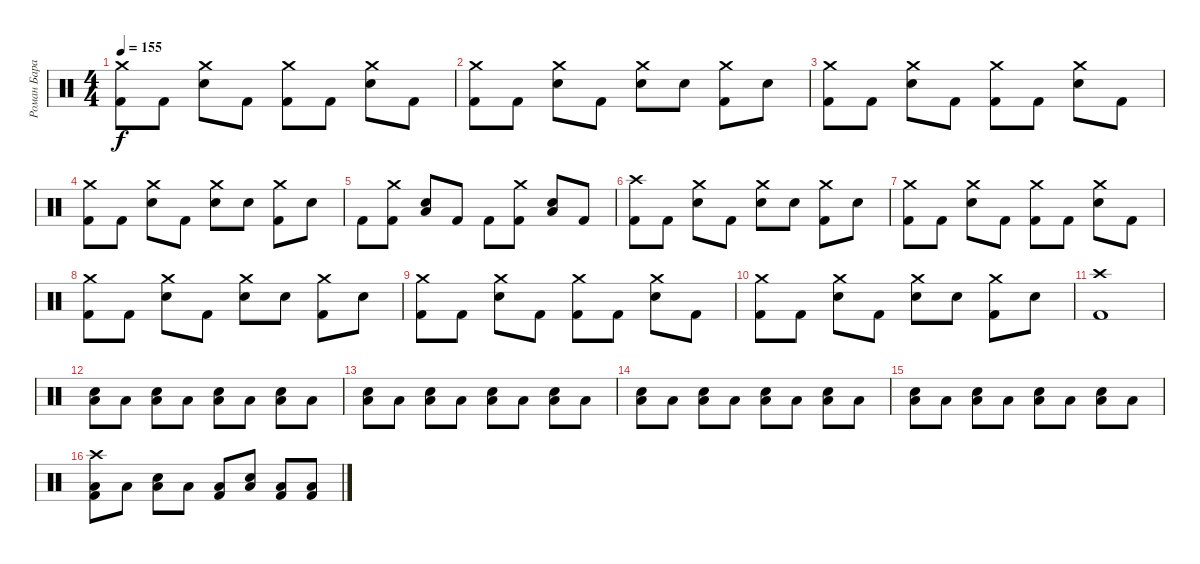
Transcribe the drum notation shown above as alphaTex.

\track ("Роман Баранюк (Meinl, Vic Firth, Peace)" "Роман Бара") {instrument percussion}
\staff {score}
\articulation defaults
\ts (4 4)
\tempo 155
\clef neutral
\ks c
("Crash medium (hit)" "Kick (hit) 2").8{dy f} "Kick (hit) 2".8 ("Crash medium (hit)" "Snare (hit) 2").8 "Kick (hit) 2".8 ("Crash medium (hit)" "Kick (hit) 2").8 "Kick (hit) 2".8 ("Crash medium (hit)" "Snare (hit) 2").8 "Kick (hit) 2".8 |
("Crash medium (hit)" "Kick (hit) 2").8 "Kick (hit) 2".8 ("Crash medium (hit)" "Snare (hit) 2").8 "Kick (hit) 2".8 ("Crash medium (hit)" "Snare (hit) 2").8 "Snare (hit) 2".8 ("Crash medium (hit)" "Kick (hit) 2").8 "Snare (hit) 2".8 |
("Crash medium (hit)" "Kick (hit) 2").8 "Kick (hit) 2".8 ("Crash medium (hit)" "Snare (hit) 2").8 "Kick (hit) 2".8 ("Crash medium (hit)" "Kick (hit) 2").8 "Kick (hit) 2".8 ("Crash medium (hit)" "Snare (hit) 2").8 "Kick (hit) 2".8 |
("Crash medium (hit)" "Kick (hit) 2").8 "Kick (hit) 2".8 ("Crash medium (hit)" "Snare (hit) 2").8 "Kick (hit) 2".8 ("Crash medium (hit)" "Snare (hit) 2").8 "Snare (hit) 2".8 ("Crash medium (hit)" "Kick (hit) 2").8 "Snare (hit) 2".8 |
"Kick (hit) 2".8 ("Crash medium (hit)" "Kick (hit) 2").8 ("Snare (hit) 2" "Low Tom (hit)").8 "Kick (hit) 2".8 "Kick (hit) 2".8 ("Crash medium (hit)" "Kick (hit) 2").8 ("Snare (hit) 2" "Low Tom (hit)").8 "Kick (hit) 2".8 |
("Crash high (hit)" "Kick (hit) 2").8 "Kick (hit) 2".8 ("Crash medium (hit)" "Snare (hit) 2").8 "Kick (hit) 2".8 ("Crash medium (hit)" "Snare (hit) 2").8 "Snare (hit) 2".8 ("Crash medium (hit)" "Kick (hit) 2").8 "Snare (hit) 2".8 |
("Crash medium (hit)" "Kick (hit) 2").8 "Kick (hit) 2".8 ("Crash medium (hit)" "Snare (hit) 2").8 "Kick (hit) 2".8 ("Crash medium (hit)" "Kick (hit) 2").8 "Kick (hit) 2".8 ("Crash medium (hit)" "Snare (hit) 2").8 "Kick (hit) 2".8 |
("Crash medium (hit)" "Kick (hit) 2").8 "Kick (hit) 2".8 ("Crash medium (hit)" "Snare (hit) 2").8 "Kick (hit) 2".8 ("Crash medium (hit)" "Snare (hit) 2").8 "Snare (hit) 2".8 ("Crash medium (hit)" "Kick (hit) 2").8 "Snare (hit) 2".8 |
("Crash medium (hit)" "Kick (hit) 2").8 "Kick (hit) 2".8 ("Crash medium (hit)" "Snare (hit) 2").8 "Kick (hit) 2".8 ("Crash medium (hit)" "Kick (hit) 2").8 "Kick (hit) 2".8 ("Crash medium (hit)" "Snare (hit) 2").8 "Kick (hit) 2".8 |
("Crash medium (hit)" "Kick (hit) 2").8 "Kick (hit) 2".8 ("Crash medium (hit)" "Snare (hit) 2").8 "Kick (hit) 2".8 ("Crash medium (hit)" "Snare (hit) 2").8 "Snare (hit) 2".8 ("Crash medium (hit)" "Kick (hit) 2").8 "Snare (hit) 2".8 |
("Crash high (hit)" "Kick (hit) 2").1 |
("Snare (hit) 2" "Low Tom (hit)").8 "Low Tom (hit)".8 ("Snare (hit) 2" "Low Tom (hit)").8 "Low Tom (hit)".8 ("Snare (hit) 2" "Low Tom (hit)").8 "Low Tom (hit)".8 ("Snare (hit) 2" "Low Tom (hit)").8 "Low Tom (hit)".8 |
("Snare (hit) 2" "Low Tom (hit)").8 "Low Tom (hit)".8 ("Snare (hit) 2" "Low Tom (hit)").8 "Low Tom (hit)".8 ("Snare (hit) 2" "Low Tom (hit)").8 "Low Tom (hit)".8 ("Snare (hit) 2" "Low Tom (hit)").8 "Low Tom (hit)".8 |
("Snare (hit) 2" "Low Tom (hit)").8 "Low Tom (hit)".8 ("Snare (hit) 2" "Low Tom (hit)").8 "Low Tom (hit)".8 ("Snare (hit) 2" "Low Tom (hit)").8 "Low Tom (hit)".8 ("Snare (hit) 2" "Low Tom (hit)").8 "Low Tom (hit)".8 |
("Snare (hit) 2" "Low Tom (hit)").8 "Low Tom (hit)".8 ("Snare (hit) 2" "Low Tom (hit)").8 "Low Tom (hit)".8 ("Snare (hit) 2" "Low Tom (hit)").8 "Low Tom (hit)".8 ("Snare (hit) 2" "Low Tom (hit)").8 "Low Tom (hit)".8 |
("Crash high (hit)" "Low Tom (hit)" "Kick (hit) 2").8 "Low Tom (hit)".8 ("Snare (hit) 2" "Low Tom (hit)").8 "Low Tom (hit)".8 ("Low Tom (hit)" "Kick (hit) 2").8 ("Snare (hit) 2" "Low Tom (hit)").8 ("Low Tom (hit)" "Kick (hit) 2").8 ("Low Tom (hit)" "Kick (hit) 2").8
